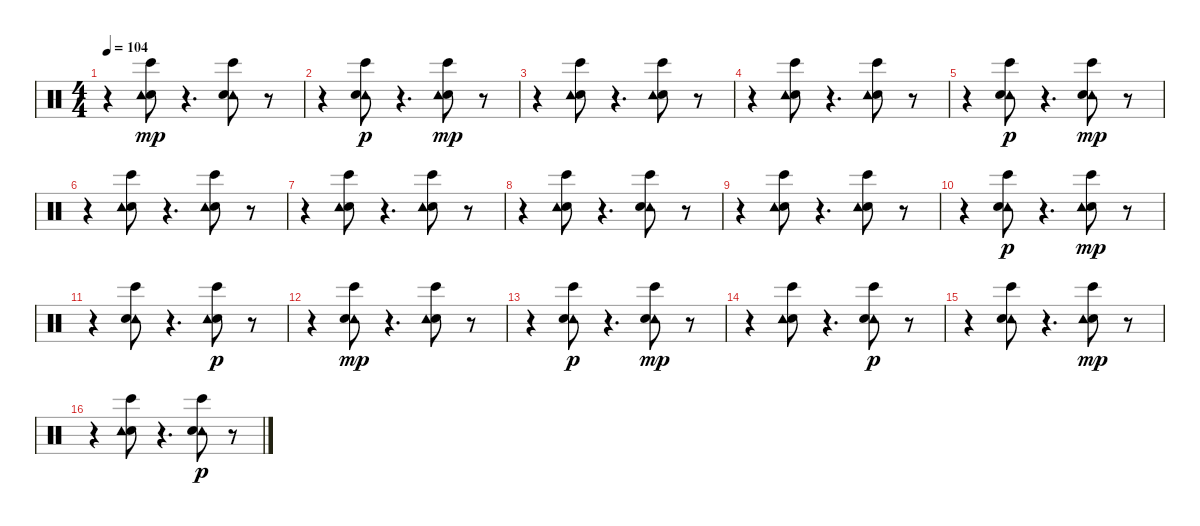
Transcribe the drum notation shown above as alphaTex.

\track "" {instrument percussion}
\staff {score}
\articulation defaults
\ts (4 4)
\tempo 104
\clef neutral
\ks c
r.4{dy mp} ("Electric Snare (hit)" "Bongo High (hit)" "Tambourine (hit)").8 r.4{d} ("Tambourine (hit)" "Electric Snare (hit)" "Bongo High (hit)").8 r.8 |
r.4 ("Tambourine (hit)" "Bongo High (hit)" "Electric Snare (hit)").8{dy p} r.4{d} ("Electric Snare (hit)" "Bongo High (hit)" "Tambourine (hit)").8{dy mp} r.8 |
r.4 ("Bongo High (hit)" "Electric Snare (hit)" "Tambourine (hit)").8 r.4{d} ("Electric Snare (hit)" "Bongo High (hit)" "Tambourine (hit)").8 r.8 |
r.4 ("Electric Snare (hit)" "Tambourine (hit)" "Bongo High (hit)").8 r.4{d} ("Bongo High (hit)" "Electric Snare (hit)" "Tambourine (hit)").8 r.8 |
r.4 ("Bongo High (hit)" "Tambourine (hit)" "Electric Snare (hit)").8{dy p} r.4{d} ("Tambourine (hit)" "Electric Snare (hit)" "Bongo High (hit)").8{dy mp} r.8 |
r.4 ("Electric Snare (hit)" "Bongo High (hit)" "Tambourine (hit)").8 r.4{d} ("Bongo High (hit)" "Electric Snare (hit)" "Tambourine (hit)").8 r.8 |
r.4 ("Electric Snare (hit)" "Bongo High (hit)" "Tambourine (hit)").8 r.4{d} ("Electric Snare (hit)" "Tambourine (hit)" "Bongo High (hit)").8 r.8 |
r.4 ("Electric Snare (hit)" "Tambourine (hit)" "Bongo High (hit)").8 r.4{d} ("Tambourine (hit)" "Electric Snare (hit)" "Bongo High (hit)").8 r.8 |
r.4 ("Electric Snare (hit)" "Tambourine (hit)" "Bongo High (hit)").8 r.4{d} ("Electric Snare (hit)" "Bongo High (hit)" "Tambourine (hit)").8 r.8 |
r.4 ("Bongo High (hit)" "Tambourine (hit)" "Electric Snare (hit)").8{dy p} r.4{d} ("Bongo High (hit)" "Electric Snare (hit)" "Tambourine (hit)").8{dy mp} r.8 |
r.4 ("Tambourine (hit)" "Electric Snare (hit)" "Bongo High (hit)").8 r.4{d} ("Electric Snare (hit)" "Tambourine (hit)" "Bongo High (hit)").8{dy p} r.8 |
r.4 ("Tambourine (hit)" "Electric Snare (hit)" "Bongo High (hit)").8{dy mp} r.4{d} ("Electric Snare (hit)" "Tambourine (hit)" "Bongo High (hit)").8 r.8 |
r.4 ("Bongo High (hit)" "Tambourine (hit)" "Electric Snare (hit)").8{dy p} r.4{d} ("Tambourine (hit)" "Electric Snare (hit)" "Bongo High (hit)").8{dy mp} r.8 |
r.4 ("Electric Snare (hit)" "Bongo High (hit)" "Tambourine (hit)").8 r.4{d} ("Bongo High (hit)" "Tambourine (hit)" "Electric Snare (hit)").8{dy p} r.8 |
r.4 ("Tambourine (hit)" "Bongo High (hit)" "Electric Snare (hit)").8 r.4{d} ("Bongo High (hit)" "Electric Snare (hit)" "Tambourine (hit)").8{dy mp} r.8 |
r.4 ("Electric Snare (hit)" "Tambourine (hit)" "Bongo High (hit)").8 r.4{d} ("Tambourine (hit)" "Bongo High (hit)" "Electric Snare (hit)").8{dy p} r.8
